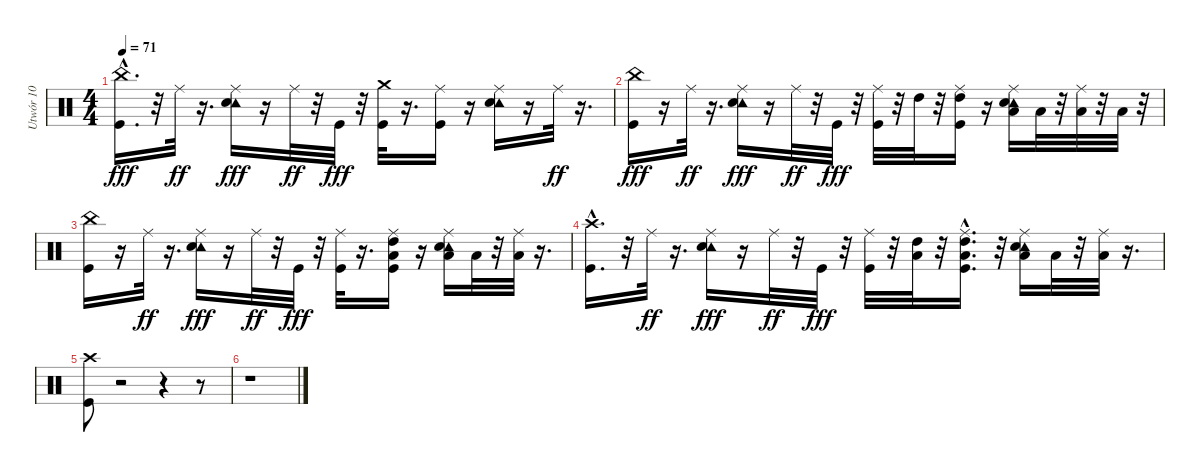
\track ("Utwór 10" "Utwór 10") {instrument percussion}
\staff {score}
\articulation defaults
\ts (4 4)
\tempo 71
\clef neutral
\ks c
("Kick (hit)"{hac} "China (hit)").16{d dy fff} r.32 "Ride (middle)".32{dy ff} r.16{d} ("Ride (middle)" "Tambourine (hit)" "Snare (hit) 2").16{dy fff} r.16 "Ride (middle)".32{dy ff} r.32 "Kick (hit)".32{dy fff} r.32 ("Kick (hit)" "Crash medium (hit)").32 r.16{d} ("Kick (hit)" "Ride (middle)").16 r.16 ("Ride (middle)" "Tambourine (hit)" "Snare (hit) 2").16 r.16 "Ride (middle)".32{dy ff} r.16{d} |
("Kick (hit)" "China (hit)").16{dy fff} r.16 "Ride (middle)".32{dy ff} r.16{d} ("Ride (middle)" "Tambourine (hit)" "Snare (hit) 2").16{dy fff} r.16 "Ride (middle)".32{dy ff} r.32 "Kick (hit)".32{dy fff} r.32 ("Kick (hit)" "Ride (middle)").32 r.32 "High Tom (hit)".32 r.32 ("Kick (hit)" "Ride (middle)" "High Tom (hit)").16 r.16 ("Ride (middle)" "Tambourine (hit)" "Snare (hit) 2" "Low Tom (hit)").16 "Low Tom (hit)".32 r.32 ("Ride (middle)" "Low Floor Tom (hit)").32 r.32 "Low Floor Tom (hit)".32 r.32 |
("Kick (hit)" "China (hit)").16 r.16 "Ride (middle)".32{dy ff} r.16{d} ("Ride (middle)" "Tambourine (hit)" "Snare (hit) 2").16{dy fff} r.16 "Ride (middle)".32{dy ff} r.32 "Kick (hit)".32{dy fff} r.32 ("Kick (hit)" "Ride (middle)").32 r.16{d} ("Kick (hit)" "Ride (middle)" "High Tom (hit)" "Low Tom (hit)").16 r.16 ("Ride (middle)" "Tambourine (hit)" "Snare (hit) 2" "Low Tom (hit)").16 "Low Tom (hit)".32 r.32 ("Ride (middle)" "Low Floor Tom (hit)").32 r.16{d} |
("Kick (hit)"{hac} "Crash high (hit)").16{d} r.32 "Ride (middle)".32{dy ff} r.16{d} ("Ride (middle)" "Tambourine (hit)" "Snare (hit) 2").16{dy fff} r.16 "Ride (middle)".32{dy ff} r.32 "Kick (hit)".32{dy fff} r.32 ("Kick (hit)" "Ride (middle)").32 r.32 ("High Tom (hit)" "Low Tom (hit)").32 r.32 ("Kick (hit)"{hac} "Ride (middle)" "High Tom (hit)" "Low Tom (hit)").16{d} r.32 ("Ride (middle)" "Tambourine (hit)" "Snare (hit) 2" "Low Tom (hit)").16 "Low Tom (hit)".32 r.32 ("Ride (middle)" "Low Floor Tom (hit)").32 r.16{d} |
("Kick (hit)" "Crash high (hit)").8 r.2 r.4 r.8 |
r.1
